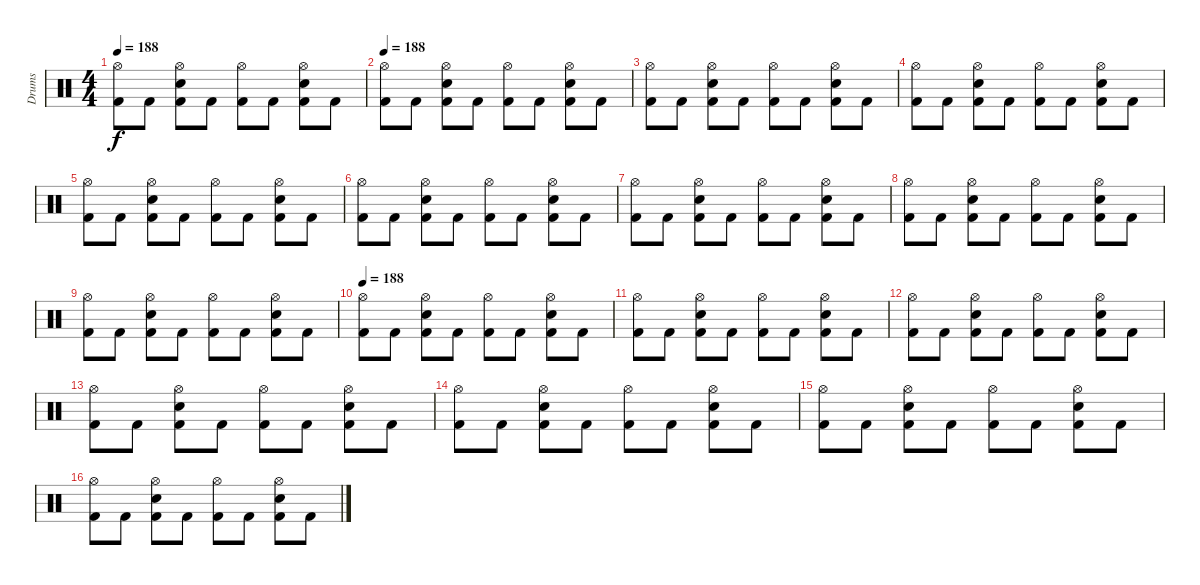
\track ("Drums" "Drums") {instrument percussion}
\staff {score}
\articulation defaults
\ts (4 4)
\tempo 188
\clef neutral
\ks c
("Hi-Hat (open)" "Kick (hit) 2").8{dy f} "Kick (hit) 2".8 ("Electric Snare (hit)" "Hi-Hat (open)" "Kick (hit) 2").8 "Kick (hit) 2".8 ("Hi-Hat (open)" "Kick (hit) 2").8 "Kick (hit) 2".8 ("Electric Snare (hit)" "Hi-Hat (open)" "Kick (hit) 2").8 "Kick (hit) 2".8 |
\tempo 188
("Hi-Hat (open)" "Kick (hit) 2").8 "Kick (hit) 2".8 ("Electric Snare (hit)" "Hi-Hat (open)" "Kick (hit) 2").8 "Kick (hit) 2".8 ("Hi-Hat (open)" "Kick (hit) 2").8 "Kick (hit) 2".8 ("Electric Snare (hit)" "Hi-Hat (open)" "Kick (hit) 2").8 "Kick (hit) 2".8 |
("Hi-Hat (open)" "Kick (hit) 2").8 "Kick (hit) 2".8 ("Electric Snare (hit)" "Hi-Hat (open)" "Kick (hit) 2").8 "Kick (hit) 2".8 ("Hi-Hat (open)" "Kick (hit) 2").8 "Kick (hit) 2".8 ("Electric Snare (hit)" "Hi-Hat (open)" "Kick (hit) 2").8 "Kick (hit) 2".8 |
("Hi-Hat (open)" "Kick (hit) 2").8 "Kick (hit) 2".8 ("Electric Snare (hit)" "Hi-Hat (open)" "Kick (hit) 2").8 "Kick (hit) 2".8 ("Hi-Hat (open)" "Kick (hit) 2").8 "Kick (hit) 2".8 ("Electric Snare (hit)" "Hi-Hat (open)" "Kick (hit) 2").8 "Kick (hit) 2".8 |
("Hi-Hat (open)" "Kick (hit) 2").8 "Kick (hit) 2".8 ("Electric Snare (hit)" "Hi-Hat (open)" "Kick (hit) 2").8 "Kick (hit) 2".8 ("Hi-Hat (open)" "Kick (hit) 2").8 "Kick (hit) 2".8 ("Electric Snare (hit)" "Hi-Hat (open)" "Kick (hit) 2").8 "Kick (hit) 2".8 |
("Hi-Hat (open)" "Kick (hit) 2").8 "Kick (hit) 2".8 ("Electric Snare (hit)" "Hi-Hat (open)" "Kick (hit) 2").8 "Kick (hit) 2".8 ("Hi-Hat (open)" "Kick (hit) 2").8 "Kick (hit) 2".8 ("Electric Snare (hit)" "Hi-Hat (open)" "Kick (hit) 2").8 "Kick (hit) 2".8 |
("Hi-Hat (open)" "Kick (hit) 2").8 "Kick (hit) 2".8 ("Electric Snare (hit)" "Hi-Hat (open)" "Kick (hit) 2").8 "Kick (hit) 2".8 ("Hi-Hat (open)" "Kick (hit) 2").8 "Kick (hit) 2".8 ("Electric Snare (hit)" "Hi-Hat (open)" "Kick (hit) 2").8 "Kick (hit) 2".8 |
("Hi-Hat (open)" "Kick (hit) 2").8 "Kick (hit) 2".8 ("Electric Snare (hit)" "Hi-Hat (open)" "Kick (hit) 2").8 "Kick (hit) 2".8 ("Hi-Hat (open)" "Kick (hit) 2").8 "Kick (hit) 2".8 ("Electric Snare (hit)" "Hi-Hat (open)" "Kick (hit) 2").8 "Kick (hit) 2".8 |
("Hi-Hat (open)" "Kick (hit) 2").8 "Kick (hit) 2".8 ("Electric Snare (hit)" "Hi-Hat (open)" "Kick (hit) 2").8 "Kick (hit) 2".8 ("Hi-Hat (open)" "Kick (hit) 2").8 "Kick (hit) 2".8 ("Electric Snare (hit)" "Hi-Hat (open)" "Kick (hit) 2").8 "Kick (hit) 2".8 |
\tempo 188
("Hi-Hat (open)" "Kick (hit) 2").8 "Kick (hit) 2".8 ("Electric Snare (hit)" "Hi-Hat (open)" "Kick (hit) 2").8 "Kick (hit) 2".8 ("Hi-Hat (open)" "Kick (hit) 2").8 "Kick (hit) 2".8 ("Electric Snare (hit)" "Hi-Hat (open)" "Kick (hit) 2").8 "Kick (hit) 2".8 |
("Hi-Hat (open)" "Kick (hit) 2").8 "Kick (hit) 2".8 ("Electric Snare (hit)" "Hi-Hat (open)" "Kick (hit) 2").8 "Kick (hit) 2".8 ("Hi-Hat (open)" "Kick (hit) 2").8 "Kick (hit) 2".8 ("Electric Snare (hit)" "Hi-Hat (open)" "Kick (hit) 2").8 "Kick (hit) 2".8 |
("Hi-Hat (open)" "Kick (hit) 2").8 "Kick (hit) 2".8 ("Electric Snare (hit)" "Hi-Hat (open)" "Kick (hit) 2").8 "Kick (hit) 2".8 ("Hi-Hat (open)" "Kick (hit) 2").8 "Kick (hit) 2".8 ("Electric Snare (hit)" "Hi-Hat (open)" "Kick (hit) 2").8 "Kick (hit) 2".8 |
("Hi-Hat (open)" "Kick (hit) 2").8 "Kick (hit) 2".8 ("Electric Snare (hit)" "Hi-Hat (open)" "Kick (hit) 2").8 "Kick (hit) 2".8 ("Hi-Hat (open)" "Kick (hit) 2").8 "Kick (hit) 2".8 ("Electric Snare (hit)" "Hi-Hat (open)" "Kick (hit) 2").8 "Kick (hit) 2".8 |
("Hi-Hat (open)" "Kick (hit) 2").8 "Kick (hit) 2".8 ("Electric Snare (hit)" "Hi-Hat (open)" "Kick (hit) 2").8 "Kick (hit) 2".8 ("Hi-Hat (open)" "Kick (hit) 2").8 "Kick (hit) 2".8 ("Electric Snare (hit)" "Hi-Hat (open)" "Kick (hit) 2").8 "Kick (hit) 2".8 |
("Hi-Hat (open)" "Kick (hit) 2").8 "Kick (hit) 2".8 ("Electric Snare (hit)" "Hi-Hat (open)" "Kick (hit) 2").8 "Kick (hit) 2".8 ("Hi-Hat (open)" "Kick (hit) 2").8 "Kick (hit) 2".8 ("Electric Snare (hit)" "Hi-Hat (open)" "Kick (hit) 2").8 "Kick (hit) 2".8 |
("Hi-Hat (open)" "Kick (hit) 2").8 "Kick (hit) 2".8 ("Electric Snare (hit)" "Hi-Hat (open)" "Kick (hit) 2").8 "Kick (hit) 2".8 ("Hi-Hat (open)" "Kick (hit) 2").8 "Kick (hit) 2".8 ("Electric Snare (hit)" "Hi-Hat (open)" "Kick (hit) 2").8 "Kick (hit) 2".8
